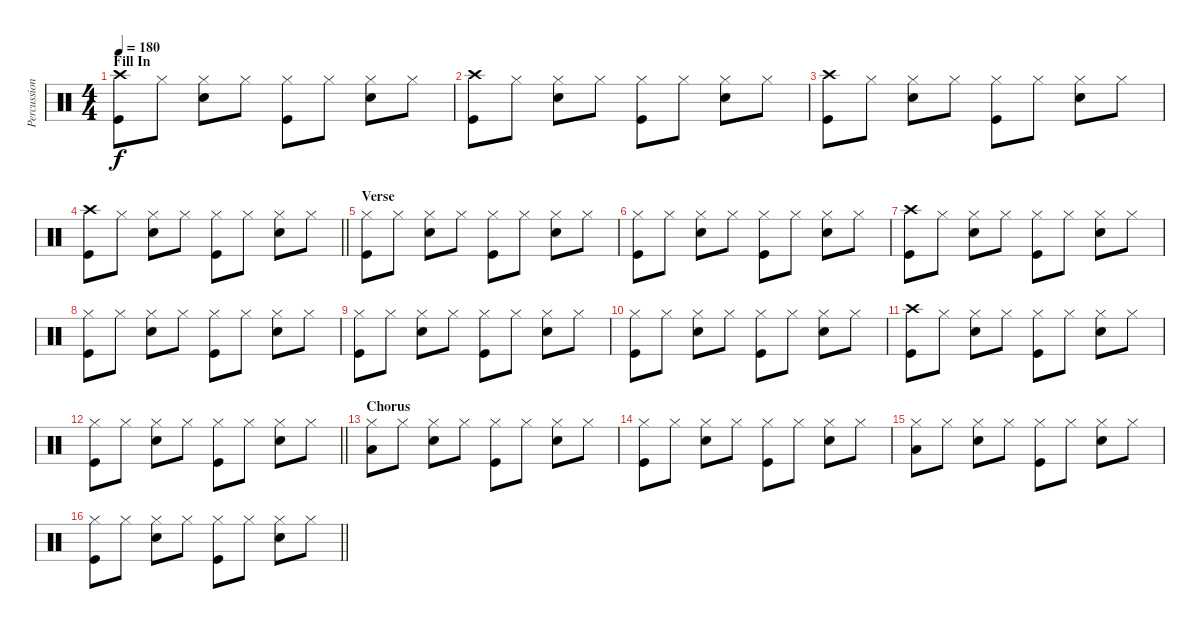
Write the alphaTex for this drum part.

\track ("Percussion" "Percussion") {mute instrument percussion}
\staff {score}
\articulation defaults
\ts (4 4)
\section ("" "Fill In")
\tempo 180
\clef neutral
\ks c
("Crash high (hit)" "Kick (hit)").8{dy f} "Hi-Hat (closed)".8 ("Hi-Hat (closed)" "Snare (hit) 2").8 "Hi-Hat (closed)".8 ("Hi-Hat (closed)" "Kick (hit)").8 "Hi-Hat (closed)".8 ("Hi-Hat (closed)" "Snare (hit) 2").8 "Hi-Hat (closed)".8 |
("Crash high (hit)" "Kick (hit)").8 "Hi-Hat (closed)".8 ("Hi-Hat (closed)" "Snare (hit) 2").8 "Hi-Hat (closed)".8 ("Hi-Hat (closed)" "Kick (hit)").8 "Hi-Hat (closed)".8 ("Hi-Hat (closed)" "Snare (hit) 2").8 "Hi-Hat (closed)".8 |
("Crash high (hit)" "Kick (hit)").8 "Hi-Hat (closed)".8 ("Hi-Hat (closed)" "Snare (hit) 2").8 "Hi-Hat (closed)".8 ("Hi-Hat (closed)" "Kick (hit)").8 "Hi-Hat (closed)".8 ("Hi-Hat (closed)" "Snare (hit) 2").8 "Hi-Hat (closed)".8 |
\barLineRight lightlight
("Crash high (hit)" "Kick (hit)").8 "Hi-Hat (closed)".8 ("Hi-Hat (closed)" "Snare (hit) 2").8 "Hi-Hat (closed)".8 ("Hi-Hat (closed)" "Kick (hit)").8 "Hi-Hat (closed)".8 ("Hi-Hat (closed)" "Snare (hit) 2").8 "Hi-Hat (closed)".8 |
\section ("" "Verse")
("Hi-Hat (closed)" "Kick (hit)").8 "Hi-Hat (closed)".8 ("Hi-Hat (closed)" "Snare (hit) 2").8 "Hi-Hat (closed)".8 ("Hi-Hat (closed)" "Kick (hit)").8 "Hi-Hat (closed)".8 ("Hi-Hat (closed)" "Snare (hit) 2").8 "Hi-Hat (closed)".8 |
("Hi-Hat (closed)" "Kick (hit)").8 "Hi-Hat (closed)".8 ("Hi-Hat (closed)" "Snare (hit) 2").8 "Hi-Hat (closed)".8 ("Hi-Hat (closed)" "Kick (hit)").8 "Hi-Hat (closed)".8 ("Hi-Hat (closed)" "Snare (hit) 2").8 "Hi-Hat (closed)".8 |
("Crash high (hit)" "Kick (hit)").8 "Hi-Hat (closed)".8 ("Hi-Hat (closed)" "Snare (hit) 2").8 "Hi-Hat (closed)".8 ("Hi-Hat (closed)" "Kick (hit)").8 "Hi-Hat (closed)".8 ("Hi-Hat (closed)" "Snare (hit) 2").8 "Hi-Hat (closed)".8 |
("Hi-Hat (closed)" "Kick (hit)").8 "Hi-Hat (closed)".8 ("Hi-Hat (closed)" "Snare (hit) 2").8 "Hi-Hat (closed)".8 ("Hi-Hat (closed)" "Kick (hit)").8 "Hi-Hat (closed)".8 ("Hi-Hat (closed)" "Snare (hit) 2").8 "Hi-Hat (closed)".8 |
("Hi-Hat (closed)" "Kick (hit)").8 "Hi-Hat (closed)".8 ("Hi-Hat (closed)" "Snare (hit) 2").8 "Hi-Hat (closed)".8 ("Hi-Hat (closed)" "Kick (hit)").8 "Hi-Hat (closed)".8 ("Hi-Hat (closed)" "Snare (hit) 2").8 "Hi-Hat (closed)".8 |
("Hi-Hat (closed)" "Kick (hit)").8 "Hi-Hat (closed)".8 ("Hi-Hat (closed)" "Snare (hit) 2").8 "Hi-Hat (closed)".8 ("Hi-Hat (closed)" "Kick (hit)").8 "Hi-Hat (closed)".8 ("Hi-Hat (closed)" "Snare (hit) 2").8 "Hi-Hat (closed)".8 |
("Crash high (hit)" "Kick (hit)").8 "Hi-Hat (closed)".8 ("Hi-Hat (closed)" "Snare (hit) 2").8 "Hi-Hat (closed)".8 ("Hi-Hat (closed)" "Kick (hit)").8 "Hi-Hat (closed)".8 ("Hi-Hat (closed)" "Snare (hit) 2").8 "Hi-Hat (closed)".8 |
\barLineRight lightlight
("Hi-Hat (closed)" "Kick (hit)").8 "Hi-Hat (closed)".8 ("Hi-Hat (closed)" "Snare (hit) 2").8 "Hi-Hat (closed)".8 ("Hi-Hat (closed)" "Kick (hit)").8 "Hi-Hat (closed)".8 ("Hi-Hat (closed)" "Snare (hit) 2").8 "Hi-Hat (closed)".8 |
\section ("" "Chorus")
("Hi-Hat (closed)" "Low Floor Tom (hit)").8 "Hi-Hat (closed)".8 ("Hi-Hat (closed)" "Snare (hit) 2").8 "Hi-Hat (closed)".8 ("Hi-Hat (closed)" "Kick (hit)").8 "Hi-Hat (closed)".8 ("Hi-Hat (closed)" "Snare (hit) 2").8 "Hi-Hat (closed)".8 |
("Hi-Hat (closed)" "Kick (hit)").8 "Hi-Hat (closed)".8 ("Hi-Hat (closed)" "Snare (hit) 2").8 "Hi-Hat (closed)".8 ("Hi-Hat (closed)" "Kick (hit)").8 "Hi-Hat (closed)".8 ("Hi-Hat (closed)" "Snare (hit) 2").8 "Hi-Hat (closed)".8 |
("Hi-Hat (closed)" "Low Floor Tom (hit)").8 "Hi-Hat (closed)".8 ("Hi-Hat (closed)" "Snare (hit) 2").8 "Hi-Hat (closed)".8 ("Hi-Hat (closed)" "Kick (hit)").8 "Hi-Hat (closed)".8 ("Hi-Hat (closed)" "Snare (hit) 2").8 "Hi-Hat (closed)".8 |
\barLineRight lightlight
("Hi-Hat (closed)" "Kick (hit)").8 "Hi-Hat (closed)".8 ("Hi-Hat (closed)" "Snare (hit) 2").8 "Hi-Hat (closed)".8 ("Hi-Hat (closed)" "Kick (hit)").8 "Hi-Hat (closed)".8 ("Hi-Hat (closed)" "Snare (hit) 2").8 "Hi-Hat (closed)".8
